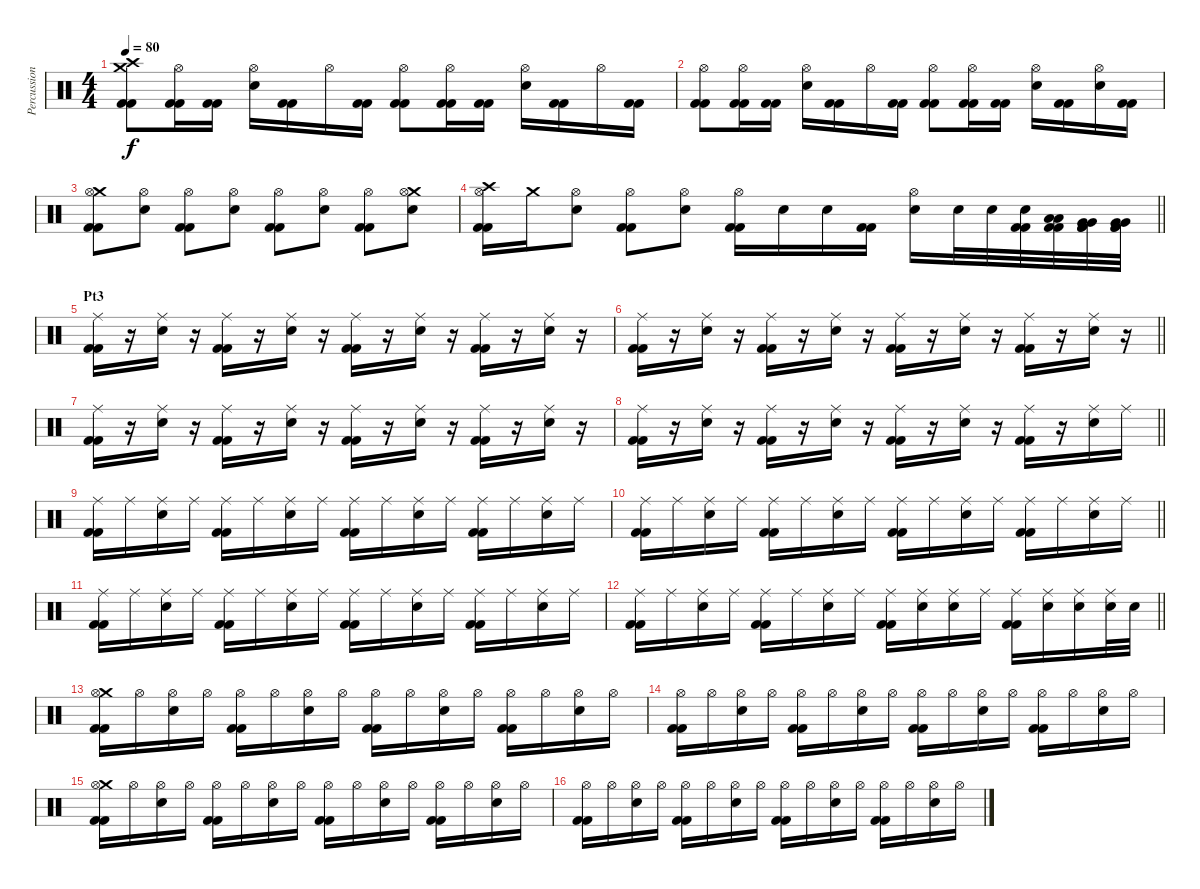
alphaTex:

\track ("Percussion" "Percussion") {instrument percussion}
\staff {score}
\articulation defaults
\ts (4 4)
\tempo 80
\clef neutral
\ks c
("Crash medium (hit)" "Crash high (hit)" "Kick (hit) 2" "Kick (hit) 2").8{dy f} ("Hi-Hat (open)" "Kick (hit) 2" "Kick (hit) 2").16 ("Kick (hit) 2" "Kick (hit) 2").16 ("Hi-Hat (open)" "Electric Snare (hit)").16 ("Kick (hit) 2" "Kick (hit) 2").16 "Hi-Hat (open)".16 ("Kick (hit) 2" "Kick (hit) 2").16 ("Hi-Hat (open)" "Kick (hit) 2" "Kick (hit) 2").8 ("Hi-Hat (open)" "Kick (hit) 2" "Kick (hit) 2").16 ("Kick (hit) 2" "Kick (hit) 2").16 ("Hi-Hat (open)" "Electric Snare (hit)").16 ("Kick (hit) 2" "Kick (hit) 2").16 "Hi-Hat (open)".16 ("Kick (hit) 2" "Kick (hit) 2").16 |
("Hi-Hat (open)" "Kick (hit) 2" "Kick (hit) 2").8 ("Hi-Hat (open)" "Kick (hit) 2" "Kick (hit) 2").16 ("Kick (hit) 2" "Kick (hit) 2").16 ("Hi-Hat (open)" "Electric Snare (hit)").16 ("Kick (hit) 2" "Kick (hit) 2").16 "Hi-Hat (open)".16 ("Kick (hit) 2" "Kick (hit) 2").16 ("Hi-Hat (open)" "Kick (hit) 2" "Kick (hit) 2").8 ("Hi-Hat (open)" "Kick (hit) 2" "Kick (hit) 2").16 ("Kick (hit) 2" "Kick (hit) 2").16 ("Hi-Hat (open)" "Electric Snare (hit)").16 ("Kick (hit) 2" "Kick (hit) 2").16 ("Hi-Hat (open)" "Electric Snare (hit)").16 ("Kick (hit) 2" "Kick (hit) 2").16 |
("Crash medium (hit)" "Hi-Hat (open)" "Kick (hit) 2" "Kick (hit) 2").8 ("Hi-Hat (open)" "Electric Snare (hit)").8 ("Hi-Hat (open)" "Kick (hit) 2" "Kick (hit) 2").8 ("Hi-Hat (open)" "Electric Snare (hit)").8 ("Hi-Hat (open)" "Kick (hit) 2" "Kick (hit) 2").8 ("Hi-Hat (open)" "Electric Snare (hit)").8 ("Hi-Hat (open)" "Kick (hit) 2" "Kick (hit) 2").8 ("Crash medium (hit)" "Hi-Hat (open)" "Electric Snare (hit)").8 |
\barLineRight lightlight
("Crash high (hit)" "Hi-Hat (open)" "Kick (hit) 2" "Kick (hit) 2").16 "Crash medium (hit)".16 ("Hi-Hat (open)" "Electric Snare (hit)").8 ("Hi-Hat (open)" "Kick (hit) 2" "Kick (hit) 2").8 ("Hi-Hat (open)" "Electric Snare (hit)").8 ("Hi-Hat (open)" "Kick (hit) 2" "Kick (hit) 2").16 "Electric Snare (hit)".16 "Electric Snare (hit)".16 ("Kick (hit) 2" "Kick (hit) 2").16 ("Hi-Hat (open)" "Electric Snare (hit)").16 "Electric Snare (hit)".32 "Electric Snare (hit)".32 ("Electric Snare (hit)" "Kick (hit) 2" "Kick (hit) 2").32 ("Low Tom (hit)" "Low Tom (hit)" "Kick (hit) 2" "Kick (hit) 2").32 ("Very Low Tom (hit)" "Very Low Tom (hit)" "Kick (hit) 2" "Kick (hit) 2").32 ("Very Low Tom (hit)" "Very Low Tom (hit)" "Kick (hit) 2" "Kick (hit) 2").32 |
\section ("" "Pt3")
("Ride (middle)" "Kick (hit) 2" "Kick (hit) 2").16 r.16 ("Ride (middle)" "Electric Snare (hit)").16 r.16 ("Ride (middle)" "Kick (hit) 2" "Kick (hit) 2").16 r.16 ("Ride (middle)" "Electric Snare (hit)").16 r.16 ("Ride (middle)" "Kick (hit) 2" "Kick (hit) 2").16 r.16 ("Ride (middle)" "Electric Snare (hit)").16 r.16 ("Ride (middle)" "Kick (hit) 2" "Kick (hit) 2").16 r.16 ("Ride (middle)" "Electric Snare (hit)").16 r.16 |
\barLineRight lightlight
("Ride (middle)" "Kick (hit) 2" "Kick (hit) 2").16 r.16 ("Ride (middle)" "Electric Snare (hit)").16 r.16 ("Ride (middle)" "Kick (hit) 2" "Kick (hit) 2").16 r.16 ("Ride (middle)" "Electric Snare (hit)").16 r.16 ("Ride (middle)" "Kick (hit) 2" "Kick (hit) 2").16 r.16 ("Ride (middle)" "Electric Snare (hit)").16 r.16 ("Ride (middle)" "Kick (hit) 2" "Kick (hit) 2").16 r.16 ("Ride (middle)" "Electric Snare (hit)").16 r.16 |
("Ride (middle)" "Kick (hit) 2" "Kick (hit) 2").16 r.16 ("Ride (middle)" "Electric Snare (hit)").16 r.16 ("Ride (middle)" "Kick (hit) 2" "Kick (hit) 2").16 r.16 ("Ride (middle)" "Electric Snare (hit)").16 r.16 ("Ride (middle)" "Kick (hit) 2" "Kick (hit) 2").16 r.16 ("Ride (middle)" "Electric Snare (hit)").16 r.16 ("Ride (middle)" "Kick (hit) 2" "Kick (hit) 2").16 r.16 ("Ride (middle)" "Electric Snare (hit)").16 r.16 |
\barLineRight lightlight
("Ride (middle)" "Kick (hit) 2" "Kick (hit) 2").16 r.16 ("Ride (middle)" "Electric Snare (hit)").16 r.16 ("Ride (middle)" "Kick (hit) 2" "Kick (hit) 2").16 r.16 ("Ride (middle)" "Electric Snare (hit)").16 r.16 ("Ride (middle)" "Kick (hit) 2" "Kick (hit) 2").16 r.16 ("Ride (middle)" "Electric Snare (hit)").16 r.16 ("Ride (middle)" "Kick (hit) 2" "Kick (hit) 2").16 r.16 ("Ride (middle)" "Electric Snare (hit)").16 "Ride (middle)".16 |
("Ride (middle)" "Kick (hit) 2" "Kick (hit) 2").16 "Ride (middle)".16 ("Ride (middle)" "Electric Snare (hit)").16 "Ride (middle)".16 ("Ride (middle)" "Kick (hit) 2" "Kick (hit) 2").16 "Ride (middle)".16 ("Ride (middle)" "Electric Snare (hit)").16 "Ride (middle)".16 ("Ride (middle)" "Kick (hit) 2" "Kick (hit) 2").16 "Ride (middle)".16 ("Ride (middle)" "Electric Snare (hit)").16 "Ride (middle)".16 ("Ride (middle)" "Kick (hit) 2" "Kick (hit) 2").16 "Ride (middle)".16 ("Ride (middle)" "Electric Snare (hit)").16 "Ride (middle)".16 |
\barLineRight lightlight
("Ride (middle)" "Kick (hit) 2" "Kick (hit) 2").16 "Ride (middle)".16 ("Ride (middle)" "Electric Snare (hit)").16 "Ride (middle)".16 ("Ride (middle)" "Kick (hit) 2" "Kick (hit) 2").16 "Ride (middle)".16 ("Ride (middle)" "Electric Snare (hit)").16 "Ride (middle)".16 ("Ride (middle)" "Kick (hit) 2" "Kick (hit) 2").16 "Ride (middle)".16 ("Ride (middle)" "Electric Snare (hit)").16 "Ride (middle)".16 ("Ride (middle)" "Kick (hit) 2" "Kick (hit) 2").16 "Ride (middle)".16 ("Ride (middle)" "Electric Snare (hit)").16 "Ride (middle)".16 |
("Ride (middle)" "Kick (hit) 2" "Kick (hit) 2").16 "Ride (middle)".16 ("Ride (middle)" "Electric Snare (hit)").16 "Ride (middle)".16 ("Ride (middle)" "Kick (hit) 2" "Kick (hit) 2").16 "Ride (middle)".16 ("Ride (middle)" "Electric Snare (hit)").16 "Ride (middle)".16 ("Ride (middle)" "Kick (hit) 2" "Kick (hit) 2").16 "Ride (middle)".16 ("Ride (middle)" "Electric Snare (hit)").16 "Ride (middle)".16 ("Ride (middle)" "Kick (hit) 2" "Kick (hit) 2").16 "Ride (middle)".16 ("Ride (middle)" "Electric Snare (hit)").16 "Ride (middle)".16 |
\barLineRight lightlight
("Ride (middle)" "Kick (hit) 2" "Kick (hit) 2").16 "Ride (middle)".16 ("Ride (middle)" "Electric Snare (hit)").16 "Ride (middle)".16 ("Ride (middle)" "Kick (hit) 2" "Kick (hit) 2").16 "Ride (middle)".16 ("Ride (middle)" "Electric Snare (hit)").16 "Ride (middle)".16 ("Ride (middle)" "Kick (hit) 2" "Kick (hit) 2").16 ("Ride (middle)" "Electric Snare (hit)").16 ("Ride (middle)" "Electric Snare (hit)").16 "Ride (middle)".16 ("Ride (middle)" "Kick (hit) 2" "Kick (hit) 2").16 ("Ride (middle)" "Electric Snare (hit)").16 ("Ride (middle)" "Electric Snare (hit)").16 ("Ride (middle)" "Electric Snare (hit)").32 "Electric Snare (hit)".32 |
("Crash medium (hit)" "Hi-Hat (open)" "Kick (hit) 2" "Kick (hit) 2").16 "Hi-Hat (open)".16 ("Hi-Hat (open)" "Electric Snare (hit)").16 "Hi-Hat (open)".16 ("Hi-Hat (open)" "Kick (hit) 2" "Kick (hit) 2").16 "Hi-Hat (open)".16 ("Hi-Hat (open)" "Electric Snare (hit)").16 "Hi-Hat (open)".16 ("Hi-Hat (open)" "Kick (hit) 2" "Kick (hit) 2").16 "Hi-Hat (open)".16 ("Hi-Hat (open)" "Electric Snare (hit)").16 "Hi-Hat (open)".16 ("Hi-Hat (open)" "Kick (hit) 2" "Kick (hit) 2").16 "Hi-Hat (open)".16 ("Hi-Hat (open)" "Electric Snare (hit)").16 "Hi-Hat (open)".16 |
("Hi-Hat (open)" "Kick (hit) 2" "Kick (hit) 2").16 "Hi-Hat (open)".16 ("Hi-Hat (open)" "Electric Snare (hit)").16 "Hi-Hat (open)".16 ("Hi-Hat (open)" "Kick (hit) 2" "Kick (hit) 2").16 "Hi-Hat (open)".16 ("Hi-Hat (open)" "Electric Snare (hit)").16 "Hi-Hat (open)".16 ("Hi-Hat (open)" "Kick (hit) 2" "Kick (hit) 2").16 "Hi-Hat (open)".16 ("Hi-Hat (open)" "Electric Snare (hit)").16 "Hi-Hat (open)".16 ("Hi-Hat (open)" "Kick (hit) 2" "Kick (hit) 2").16 "Hi-Hat (open)".16 ("Hi-Hat (open)" "Electric Snare (hit)").16 "Hi-Hat (open)".16 |
("Crash medium (hit)" "Hi-Hat (open)" "Kick (hit) 2" "Kick (hit) 2").16 "Hi-Hat (open)".16 ("Hi-Hat (open)" "Electric Snare (hit)").16 "Hi-Hat (open)".16 ("Hi-Hat (open)" "Kick (hit) 2" "Kick (hit) 2").16 "Hi-Hat (open)".16 ("Hi-Hat (open)" "Electric Snare (hit)").16 "Hi-Hat (open)".16 ("Hi-Hat (open)" "Kick (hit) 2" "Kick (hit) 2").16 "Hi-Hat (open)".16 ("Hi-Hat (open)" "Electric Snare (hit)").16 "Hi-Hat (open)".16 ("Hi-Hat (open)" "Kick (hit) 2" "Kick (hit) 2").16 "Hi-Hat (open)".16 ("Hi-Hat (open)" "Electric Snare (hit)").16 "Hi-Hat (open)".16 |
("Hi-Hat (open)" "Kick (hit) 2" "Kick (hit) 2").16 "Hi-Hat (open)".16 ("Hi-Hat (open)" "Electric Snare (hit)").16 "Hi-Hat (open)".16 ("Hi-Hat (open)" "Kick (hit) 2" "Kick (hit) 2").16 "Hi-Hat (open)".16 ("Hi-Hat (open)" "Electric Snare (hit)").16 "Hi-Hat (open)".16 ("Hi-Hat (open)" "Kick (hit) 2" "Kick (hit) 2").16 "Hi-Hat (open)".16 ("Hi-Hat (open)" "Electric Snare (hit)").16 "Hi-Hat (open)".16 ("Hi-Hat (open)" "Kick (hit) 2" "Kick (hit) 2").16 "Hi-Hat (open)".16 ("Hi-Hat (open)" "Electric Snare (hit)").16 "Hi-Hat (open)".16
